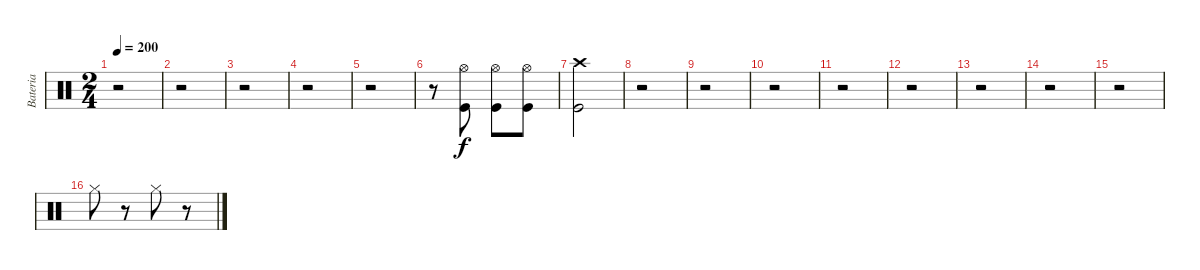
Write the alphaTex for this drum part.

\track ("Bateria" "Bateria") {instrument percussion}
\staff {score}
\articulation defaults
\ts (2 4)
\tempo 200
\clef neutral
\ks c
r.2{dy f} |
r.2 |
r.2 |
r.2 |
r.2 |
r.8 ("Kick (hit)" "Hi-Hat (open)").8 ("Kick (hit)" "Hi-Hat (open)").8 ("Kick (hit)" "Hi-Hat (open)").8 |
("Kick (hit)" "Crash high (hit)").2 |
r.2 |
r.2 |
r.2 |
r.2 |
r.2 |
r.2 |
r.2 |
r.2 |
"Hi-Hat (closed)".8 r.8 "Hi-Hat (closed)".8 r.8
